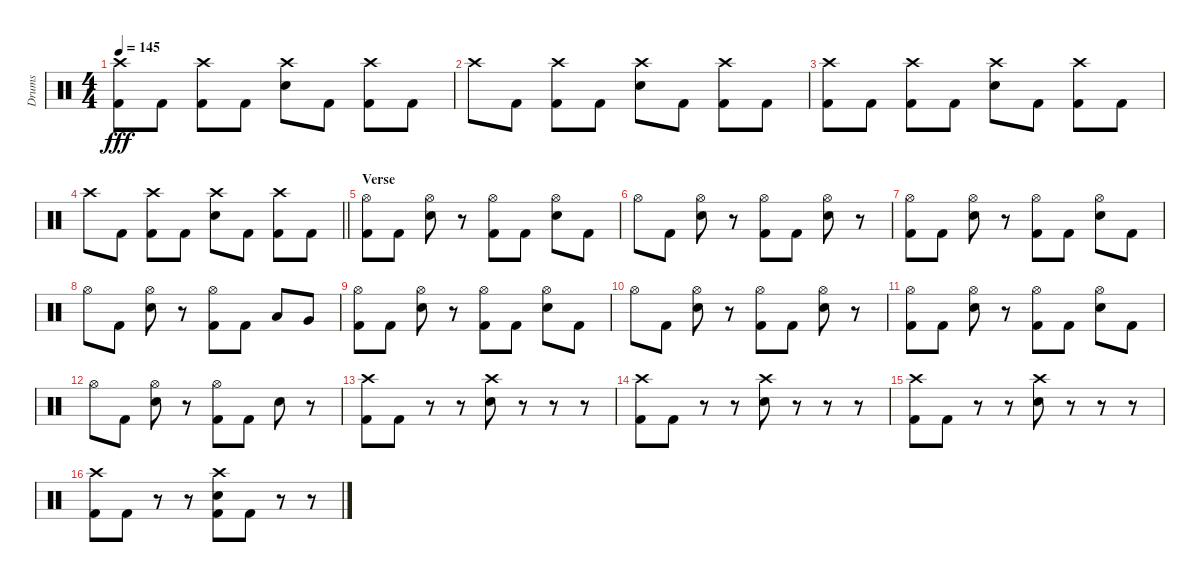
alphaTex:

\track ("Drums" "Drums") {instrument percussion}
\staff {score}
\articulation defaults
\ts (4 4)
\tempo 145
\clef neutral
\ks c
("Crash high (hit)" "Kick (hit) 2").8{dy fff} "Kick (hit) 2".8 ("Crash high (hit)" "Kick (hit) 2").8 "Kick (hit) 2".8 ("Crash high (hit)" "Electric Snare (hit)").8 "Kick (hit) 2".8 ("Crash high (hit)" "Kick (hit) 2").8 "Kick (hit) 2".8 |
"Crash high (hit)".8 "Kick (hit) 2".8 ("Crash high (hit)" "Kick (hit) 2").8 "Kick (hit) 2".8 ("Crash high (hit)" "Electric Snare (hit)").8 "Kick (hit) 2".8 ("Crash high (hit)" "Kick (hit) 2").8 "Kick (hit) 2".8 |
("Crash high (hit)" "Kick (hit) 2").8 "Kick (hit) 2".8 ("Crash high (hit)" "Kick (hit) 2").8 "Kick (hit) 2".8 ("Crash high (hit)" "Electric Snare (hit)").8 "Kick (hit) 2".8 ("Crash high (hit)" "Kick (hit) 2").8 "Kick (hit) 2".8 |
\barLineRight lightlight "Crash high (hit)".8 "Kick (hit) 2".8
("Crash high (hit)" "Kick (hit) 2").8 "Kick (hit) 2".8 ("Crash high (hit)" "Electric Snare (hit)").8 "Kick (hit) 2".8 ("Crash high (hit)" "Kick (hit) 2").8 "Kick (hit) 2".8 |
\section ("" "Verse ")
("Hi-Hat (open)" "Kick (hit) 2").8 "Kick (hit) 2".8 ("Hi-Hat (open)" "Electric Snare (hit)").8 r.8 ("Hi-Hat (open)" "Kick (hit) 2").8 "Kick (hit) 2".8 ("Hi-Hat (open)" "Electric Snare (hit)").8 "Kick (hit) 2".8 |
"Hi-Hat (open)".8 "Kick (hit) 2".8 ("Hi-Hat (open)" "Electric Snare (hit)").8 r.8 ("Hi-Hat (open)" "Kick (hit) 2").8 "Kick (hit) 2".8 ("Hi-Hat (open)" "Electric Snare (hit)").8 r.8 |
("Hi-Hat (open)" "Kick (hit) 2").8 "Kick (hit) 2".8 ("Hi-Hat (open)" "Electric Snare (hit)").8 r.8 ("Hi-Hat (open)" "Kick (hit) 2").8 "Kick (hit) 2".8 ("Hi-Hat (open)" "Electric Snare (hit)").8 "Kick (hit) 2".8 |
"Hi-Hat (open)".8 "Kick (hit) 2".8 ("Hi-Hat (open)" "Electric Snare (hit)").8 r.8 ("Hi-Hat (open)" "Kick (hit) 2").8 "Kick (hit) 2".8 "Low Tom (hit)".8 "Very Low Tom (hit)".8 |
("Hi-Hat (open)" "Kick (hit) 2").8 "Kick (hit) 2".8 ("Hi-Hat (open)" "Electric Snare (hit)").8 r.8 ("Hi-Hat (open)" "Kick (hit) 2").8 "Kick (hit) 2".8 ("Hi-Hat (open)" "Electric Snare (hit)").8 "Kick (hit) 2".8 |
"Hi-Hat (open)".8 "Kick (hit) 2".8 ("Hi-Hat (open)" "Electric Snare (hit)").8 r.8 ("Hi-Hat (open)" "Kick (hit) 2").8 "Kick (hit) 2".8 ("Hi-Hat (open)" "Electric Snare (hit)").8 r.8 |
("Hi-Hat (open)" "Kick (hit) 2").8 "Kick (hit) 2".8 ("Hi-Hat (open)" "Electric Snare (hit)").8 r.8 ("Hi-Hat (open)" "Kick (hit) 2").8 "Kick (hit) 2".8 ("Hi-Hat (open)" "Electric Snare (hit)").8 "Kick (hit) 2".8 |
"Hi-Hat (open)".8 "Kick (hit) 2".8 ("Hi-Hat (open)" "Electric Snare (hit)").8 r.8 ("Hi-Hat (open)" "Kick (hit) 2").8 "Kick (hit) 2".8 "Electric Snare (hit)".8 r.8 |
("Crash high (hit)" "Kick (hit) 2").8 "Kick (hit) 2".8 r.8 r.8 ("Crash high (hit)" "Electric Snare (hit)").8 r.8 r.8 r.8 |
("Crash high (hit)" "Kick (hit) 2").8 "Kick (hit) 2".8 r.8 r.8 ("Crash high (hit)" "Electric Snare (hit)").8 r.8 r.8 r.8 |
("Crash high (hit)" "Kick (hit) 2").8 "Kick (hit) 2".8 r.8 r.8 ("Crash high (hit)" "Electric Snare (hit)").8 r.8 r.8 r.8 |
("Crash high (hit)" "Kick (hit) 2").8 "Kick (hit) 2".8 r.8 r.8 ("Crash high (hit)" "Electric Snare (hit)" "Kick (hit) 2").8 "Kick (hit) 2".8 r.8 r.8
